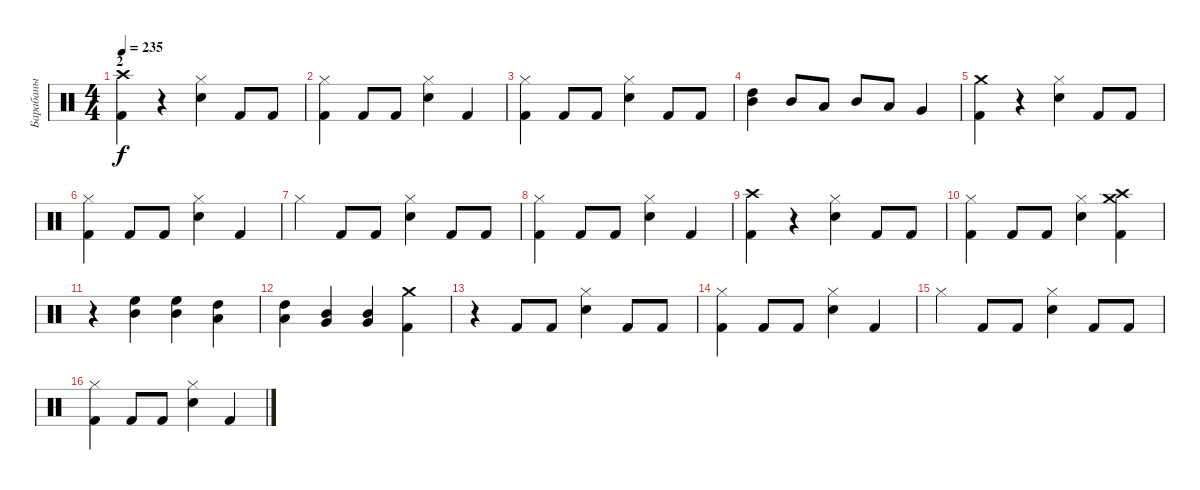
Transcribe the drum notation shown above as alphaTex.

\track ("Барабаны" "Барабаны") {instrument percussion}
\staff {score}
\articulation defaults
\ts (4 4)
\section ("" "2")
\tempo 235
\clef neutral
\ks c
("Kick (hit) 2" "Crash high (hit)").4{dy f} r.4 ("Hi-Hat (closed)" "Electric Snare (hit)").4 "Kick (hit) 2".8 "Kick (hit) 2".8 |
("Hi-Hat (closed)" "Kick (hit) 2").4 "Kick (hit) 2".8 "Kick (hit) 2".8 ("Hi-Hat (closed)" "Electric Snare (hit)").4 "Kick (hit) 2".4 |
("Kick (hit) 2" "Hi-Hat (closed)").4 "Kick (hit) 2".8 "Kick (hit) 2".8 ("Electric Snare (hit)" "Hi-Hat (closed)").4 "Kick (hit) 2".8 "Kick (hit) 2".8 |
("Mid Tom (hit)" "High Tom (hit)").4 "Mid Tom (hit)".8 "Low Tom (hit)".8 "Mid Tom (hit)".8 "Low Tom (hit)".8 "Very Low Tom (hit)".4 |
("Kick (hit) 2" "Crash medium (hit)").4 r.4 ("Hi-Hat (closed)" "Electric Snare (hit)").4 "Kick (hit) 2".8 "Kick (hit) 2".8 |
("Hi-Hat (closed)" "Kick (hit) 2").4 "Kick (hit) 2".8 "Kick (hit) 2".8 ("Hi-Hat (closed)" "Electric Snare (hit)").4 "Kick (hit) 2".4 |
"Hi-Hat (closed)".4 "Kick (hit) 2".8 "Kick (hit) 2".8 ("Electric Snare (hit)" "Hi-Hat (closed)").4 "Kick (hit) 2".8 "Kick (hit) 2".8 |
("Kick (hit) 2" "Hi-Hat (closed)").4 "Kick (hit) 2".8 "Kick (hit) 2".8 ("Electric Snare (hit)" "Hi-Hat (closed)").4 "Kick (hit) 2".4 |
("Kick (hit) 2" "Crash high (hit)").4 r.4 ("Hi-Hat (closed)" "Electric Snare (hit)").4 "Kick (hit) 2".8 "Kick (hit) 2".8 |
("Hi-Hat (closed)" "Kick (hit) 2").4 "Kick (hit) 2".8 "Kick (hit) 2".8 ("Hi-Hat (closed)" "Electric Snare (hit)").4 ("Crash high (hit)" "Crash medium (hit)" "Kick (hit) 2").4 |
r.4 ("High Floor Tom (hit)" "Mid Tom (hit)").4 ("High Floor Tom (hit)" "Mid Tom (hit)").4 ("High Tom (hit)" "Low Tom (hit)").4 |
("High Tom (hit)" "Low Tom (hit)").4 ("Mid Tom (hit)" "Very Low Tom (hit)").4 ("Mid Tom (hit)" "Very Low Tom (hit)").4 ("Crash medium (hit)" "Kick (hit) 2").4 |
r.4 "Kick (hit) 2".8 "Kick (hit) 2".8 ("Hi-Hat (closed)" "Electric Snare (hit)").4 "Kick (hit) 2".8 "Kick (hit) 2".8 |
("Hi-Hat (closed)" "Kick (hit) 2").4 "Kick (hit) 2".8 "Kick (hit) 2".8 ("Hi-Hat (closed)" "Electric Snare (hit)").4 "Kick (hit) 2".4 |
"Hi-Hat (closed)".4 "Kick (hit) 2".8 "Kick (hit) 2".8 ("Electric Snare (hit)" "Hi-Hat (closed)").4 "Kick (hit) 2".8 "Kick (hit) 2".8 |
("Kick (hit) 2" "Hi-Hat (closed)").4 "Kick (hit) 2".8 "Kick (hit) 2".8 ("Electric Snare (hit)" "Hi-Hat (closed)").4 "Kick (hit) 2".4
